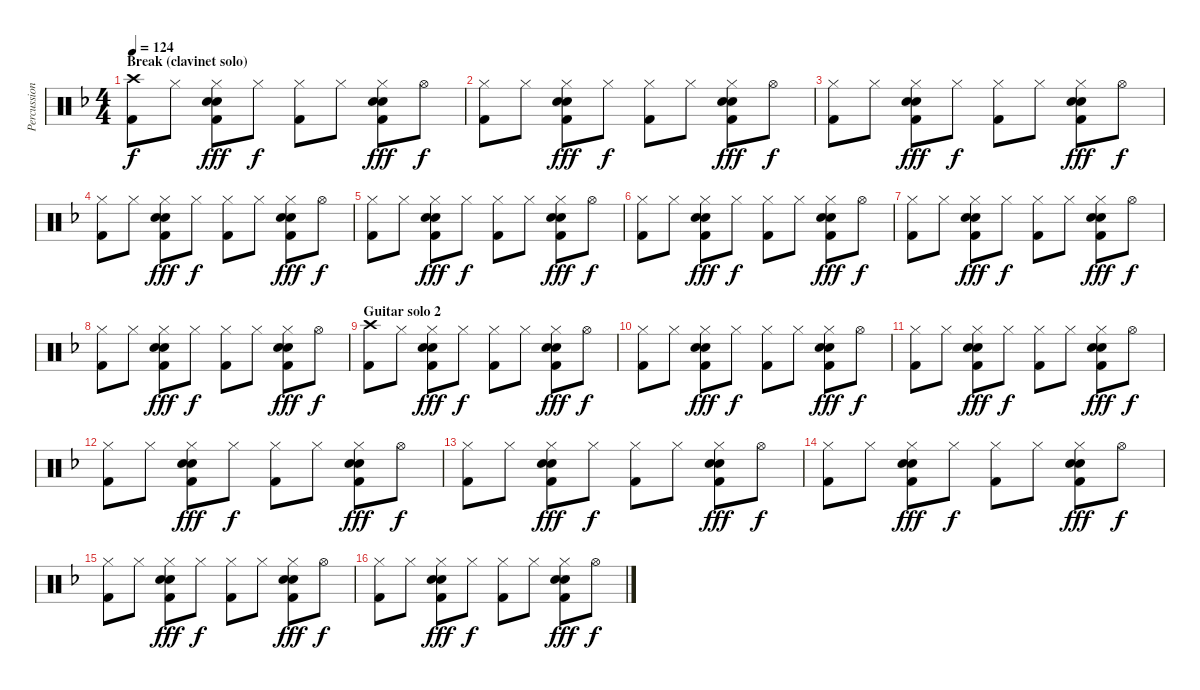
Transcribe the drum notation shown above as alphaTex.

\track ("Percussion" "Percussion") {instrument percussion}
\staff {score}
\articulation defaults
\ts (4 4)
\section ("" "Break (clavinet solo)")
\tempo 124
\clef neutral
\ks f
("Crash high (hit)" "Kick (hit) 2").8{dy f} "Hi-Hat (closed)".8 ("Hi-Hat (closed)" "Hand Clap (hit)" "Electric Snare (hit)" "Kick (hit) 2").8{dy fff} "Hi-Hat (closed)".8{dy f} ("Hi-Hat (closed)" "Kick (hit) 2").8 "Hi-Hat (closed)".8 ("Hi-Hat (closed)" "Hand Clap (hit)" "Electric Snare (hit)" "Kick (hit) 2").8{dy fff} "Hi-Hat (open)".8{dy f} |
("Hi-Hat (closed)" "Kick (hit) 2").8 "Hi-Hat (closed)".8 ("Hi-Hat (closed)" "Hand Clap (hit)" "Electric Snare (hit)" "Kick (hit) 2").8{dy fff} "Hi-Hat (closed)".8{dy f} ("Hi-Hat (closed)" "Kick (hit) 2").8 "Hi-Hat (closed)".8 ("Hi-Hat (closed)" "Hand Clap (hit)" "Electric Snare (hit)" "Kick (hit) 2").8{dy fff} "Hi-Hat (open)".8{dy f} |
("Hi-Hat (closed)" "Kick (hit) 2").8 "Hi-Hat (closed)".8 ("Hi-Hat (closed)" "Hand Clap (hit)" "Electric Snare (hit)" "Kick (hit) 2").8{dy fff} "Hi-Hat (closed)".8{dy f} ("Hi-Hat (closed)" "Kick (hit) 2").8 "Hi-Hat (closed)".8 ("Hi-Hat (closed)" "Hand Clap (hit)" "Electric Snare (hit)" "Kick (hit) 2").8{dy fff} "Hi-Hat (open)".8{dy f} |
("Hi-Hat (closed)" "Kick (hit) 2").8 "Hi-Hat (closed)".8 ("Hi-Hat (closed)" "Hand Clap (hit)" "Electric Snare (hit)" "Kick (hit) 2").8{dy fff} "Hi-Hat (closed)".8{dy f} ("Hi-Hat (closed)" "Kick (hit) 2").8 "Hi-Hat (closed)".8 ("Hi-Hat (closed)" "Hand Clap (hit)" "Electric Snare (hit)" "Kick (hit) 2").8{dy fff} "Hi-Hat (open)".8{dy f} |
("Hi-Hat (closed)" "Kick (hit) 2").8 "Hi-Hat (closed)".8 ("Hi-Hat (closed)" "Hand Clap (hit)" "Electric Snare (hit)" "Kick (hit) 2").8{dy fff} "Hi-Hat (closed)".8{dy f} ("Hi-Hat (closed)" "Kick (hit) 2").8 "Hi-Hat (closed)".8 ("Hi-Hat (closed)" "Hand Clap (hit)" "Electric Snare (hit)" "Kick (hit) 2").8{dy fff} "Hi-Hat (open)".8{dy f} |
("Hi-Hat (closed)" "Kick (hit) 2").8 "Hi-Hat (closed)".8 ("Hi-Hat (closed)" "Hand Clap (hit)" "Electric Snare (hit)" "Kick (hit) 2").8{dy fff} "Hi-Hat (closed)".8{dy f} ("Hi-Hat (closed)" "Kick (hit) 2").8 "Hi-Hat (closed)".8 ("Hi-Hat (closed)" "Hand Clap (hit)" "Electric Snare (hit)" "Kick (hit) 2").8{dy fff} "Hi-Hat (open)".8{dy f} |
("Hi-Hat (closed)" "Kick (hit) 2").8 "Hi-Hat (closed)".8 ("Hi-Hat (closed)" "Hand Clap (hit)" "Electric Snare (hit)" "Kick (hit) 2").8{dy fff} "Hi-Hat (closed)".8{dy f} ("Hi-Hat (closed)" "Kick (hit) 2").8 "Hi-Hat (closed)".8 ("Hi-Hat (closed)" "Hand Clap (hit)" "Electric Snare (hit)" "Kick (hit) 2").8{dy fff} "Hi-Hat (open)".8{dy f} |
("Hi-Hat (closed)" "Kick (hit) 2").8 "Hi-Hat (closed)".8 ("Hi-Hat (closed)" "Hand Clap (hit)" "Electric Snare (hit)" "Kick (hit) 2").8{dy fff} "Hi-Hat (closed)".8{dy f} ("Hi-Hat (closed)" "Kick (hit) 2").8 "Hi-Hat (closed)".8 ("Hi-Hat (closed)" "Hand Clap (hit)" "Electric Snare (hit)" "Kick (hit) 2").8{dy fff} "Hi-Hat (open)".8{dy f} |
\section ("" "Guitar solo 2")
("Crash high (hit)" "Kick (hit) 2").8 "Hi-Hat (closed)".8 ("Hi-Hat (closed)" "Hand Clap (hit)" "Electric Snare (hit)" "Kick (hit) 2").8{dy fff} "Hi-Hat (closed)".8{dy f} ("Hi-Hat (closed)" "Kick (hit) 2").8 "Hi-Hat (closed)".8 ("Hi-Hat (closed)" "Hand Clap (hit)" "Electric Snare (hit)" "Kick (hit) 2").8{dy fff} "Hi-Hat (open)".8{dy f} |
("Hi-Hat (closed)" "Kick (hit) 2").8 "Hi-Hat (closed)".8 ("Hi-Hat (closed)" "Hand Clap (hit)" "Electric Snare (hit)" "Kick (hit) 2").8{dy fff} "Hi-Hat (closed)".8{dy f} ("Hi-Hat (closed)" "Kick (hit) 2").8 "Hi-Hat (closed)".8 ("Hi-Hat (closed)" "Hand Clap (hit)" "Electric Snare (hit)" "Kick (hit) 2").8{dy fff} "Hi-Hat (open)".8{dy f} |
("Hi-Hat (closed)" "Kick (hit) 2").8 "Hi-Hat (closed)".8 ("Hi-Hat (closed)" "Hand Clap (hit)" "Electric Snare (hit)" "Kick (hit) 2").8{dy fff} "Hi-Hat (closed)".8{dy f} ("Hi-Hat (closed)" "Kick (hit) 2").8 "Hi-Hat (closed)".8 ("Hi-Hat (closed)" "Hand Clap (hit)" "Electric Snare (hit)" "Kick (hit) 2").8{dy fff} "Hi-Hat (open)".8{dy f} |
("Hi-Hat (closed)" "Kick (hit) 2").8 "Hi-Hat (closed)".8 ("Hi-Hat (closed)" "Hand Clap (hit)" "Electric Snare (hit)" "Kick (hit) 2").8{dy fff} "Hi-Hat (closed)".8{dy f} ("Hi-Hat (closed)" "Kick (hit) 2").8 "Hi-Hat (closed)".8 ("Hi-Hat (closed)" "Hand Clap (hit)" "Electric Snare (hit)" "Kick (hit) 2").8{dy fff} "Hi-Hat (open)".8{dy f} |
("Hi-Hat (closed)" "Kick (hit) 2").8 "Hi-Hat (closed)".8 ("Hi-Hat (closed)" "Hand Clap (hit)" "Electric Snare (hit)" "Kick (hit) 2").8{dy fff} "Hi-Hat (closed)".8{dy f} ("Hi-Hat (closed)" "Kick (hit) 2").8 "Hi-Hat (closed)".8 ("Hi-Hat (closed)" "Hand Clap (hit)" "Electric Snare (hit)" "Kick (hit) 2").8{dy fff} "Hi-Hat (open)".8{dy f} |
("Hi-Hat (closed)" "Kick (hit) 2").8 "Hi-Hat (closed)".8 ("Hi-Hat (closed)" "Hand Clap (hit)" "Electric Snare (hit)" "Kick (hit) 2").8{dy fff} "Hi-Hat (closed)".8{dy f} ("Hi-Hat (closed)" "Kick (hit) 2").8 "Hi-Hat (closed)".8 ("Hi-Hat (closed)" "Hand Clap (hit)" "Electric Snare (hit)" "Kick (hit) 2").8{dy fff} "Hi-Hat (open)".8{dy f} |
("Hi-Hat (closed)" "Kick (hit) 2").8 "Hi-Hat (closed)".8 ("Hi-Hat (closed)" "Hand Clap (hit)" "Electric Snare (hit)" "Kick (hit) 2").8{dy fff} "Hi-Hat (closed)".8{dy f} ("Hi-Hat (closed)" "Kick (hit) 2").8 "Hi-Hat (closed)".8 ("Hi-Hat (closed)" "Hand Clap (hit)" "Electric Snare (hit)" "Kick (hit) 2").8{dy fff} "Hi-Hat (open)".8{dy f} |
("Hi-Hat (closed)" "Kick (hit) 2").8 "Hi-Hat (closed)".8 ("Hi-Hat (closed)" "Hand Clap (hit)" "Electric Snare (hit)" "Kick (hit) 2").8{dy fff} "Hi-Hat (closed)".8{dy f} ("Hi-Hat (closed)" "Kick (hit) 2").8 "Hi-Hat (closed)".8 ("Hi-Hat (closed)" "Hand Clap (hit)" "Electric Snare (hit)" "Kick (hit) 2").8{dy fff} "Hi-Hat (open)".8{dy f}
